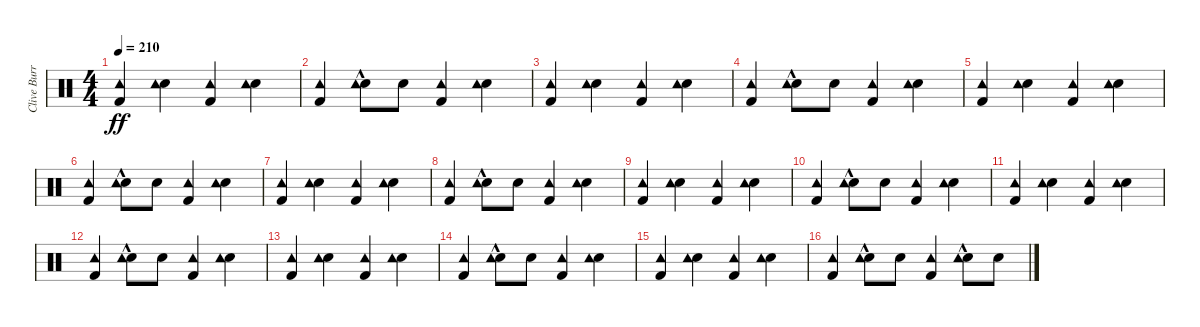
\track ("Clive Burr" "Clive Burr") {instrument percussion}
\staff {score}
\articulation defaults
\ts (4 4)
\tempo 210
\clef neutral
\ks c
("Kick (hit) 2" "Tambourine (hit)").4{dy ff} ("Snare (hit) 2" "Tambourine (hit)").4 ("Kick (hit) 2" "Tambourine (hit)").4 ("Snare (hit) 2" "Tambourine (hit)").4 |
("Kick (hit) 2" "Tambourine (hit)").4 ("Snare (hit) 2" "Tambourine (hit)"{hac}).8 "Snare (hit) 2".8 ("Kick (hit) 2" "Tambourine (hit)").4 ("Snare (hit) 2" "Tambourine (hit)").4 |
("Kick (hit) 2" "Tambourine (hit)").4 ("Snare (hit) 2" "Tambourine (hit)").4 ("Kick (hit) 2" "Tambourine (hit)").4 ("Snare (hit) 2" "Tambourine (hit)").4 |
("Kick (hit) 2" "Tambourine (hit)").4 ("Snare (hit) 2" "Tambourine (hit)"{hac}).8 "Snare (hit) 2".8 ("Kick (hit) 2" "Tambourine (hit)").4 ("Snare (hit) 2" "Tambourine (hit)").4 |
("Kick (hit) 2" "Tambourine (hit)").4 ("Snare (hit) 2" "Tambourine (hit)").4 ("Kick (hit) 2" "Tambourine (hit)").4 ("Snare (hit) 2" "Tambourine (hit)").4 |
("Kick (hit) 2" "Tambourine (hit)").4 ("Snare (hit) 2" "Tambourine (hit)"{hac}).8 "Snare (hit) 2".8 ("Kick (hit) 2" "Tambourine (hit)").4 ("Snare (hit) 2" "Tambourine (hit)").4 |
("Kick (hit) 2" "Tambourine (hit)").4 ("Snare (hit) 2" "Tambourine (hit)").4 ("Kick (hit) 2" "Tambourine (hit)").4 ("Snare (hit) 2" "Tambourine (hit)").4 |
("Kick (hit) 2" "Tambourine (hit)").4 ("Snare (hit) 2" "Tambourine (hit)"{hac}).8 "Snare (hit) 2".8 ("Kick (hit) 2" "Tambourine (hit)").4 ("Snare (hit) 2" "Tambourine (hit)").4 |
("Kick (hit) 2" "Tambourine (hit)").4 ("Snare (hit) 2" "Tambourine (hit)").4 ("Kick (hit) 2" "Tambourine (hit)").4 ("Snare (hit) 2" "Tambourine (hit)").4 |
("Kick (hit) 2" "Tambourine (hit)").4 ("Snare (hit) 2" "Tambourine (hit)"{hac}).8 "Snare (hit) 2".8 ("Kick (hit) 2" "Tambourine (hit)").4 ("Snare (hit) 2" "Tambourine (hit)").4 |
("Kick (hit) 2" "Tambourine (hit)").4 ("Snare (hit) 2" "Tambourine (hit)").4 ("Kick (hit) 2" "Tambourine (hit)").4 ("Snare (hit) 2" "Tambourine (hit)").4 |
("Kick (hit) 2" "Tambourine (hit)").4 ("Snare (hit) 2" "Tambourine (hit)"{hac}).8 "Snare (hit) 2".8 ("Kick (hit) 2" "Tambourine (hit)").4 ("Snare (hit) 2" "Tambourine (hit)").4 |
("Kick (hit) 2" "Tambourine (hit)").4 ("Snare (hit) 2" "Tambourine (hit)").4 ("Kick (hit) 2" "Tambourine (hit)").4 ("Snare (hit) 2" "Tambourine (hit)").4 |
("Kick (hit) 2" "Tambourine (hit)").4 ("Snare (hit) 2" "Tambourine (hit)"{hac}).8 "Snare (hit) 2".8 ("Kick (hit) 2" "Tambourine (hit)").4 ("Snare (hit) 2" "Tambourine (hit)").4 |
("Kick (hit) 2" "Tambourine (hit)").4 ("Snare (hit) 2" "Tambourine (hit)").4 ("Kick (hit) 2" "Tambourine (hit)").4 ("Snare (hit) 2" "Tambourine (hit)").4 |
("Kick (hit) 2" "Tambourine (hit)").4 ("Snare (hit) 2" "Tambourine (hit)"{hac}).8 "Snare (hit) 2".8 ("Kick (hit) 2" "Tambourine (hit)").4 ("Snare (hit) 2" "Tambourine (hit)"{hac}).8 "Snare (hit) 2".8
